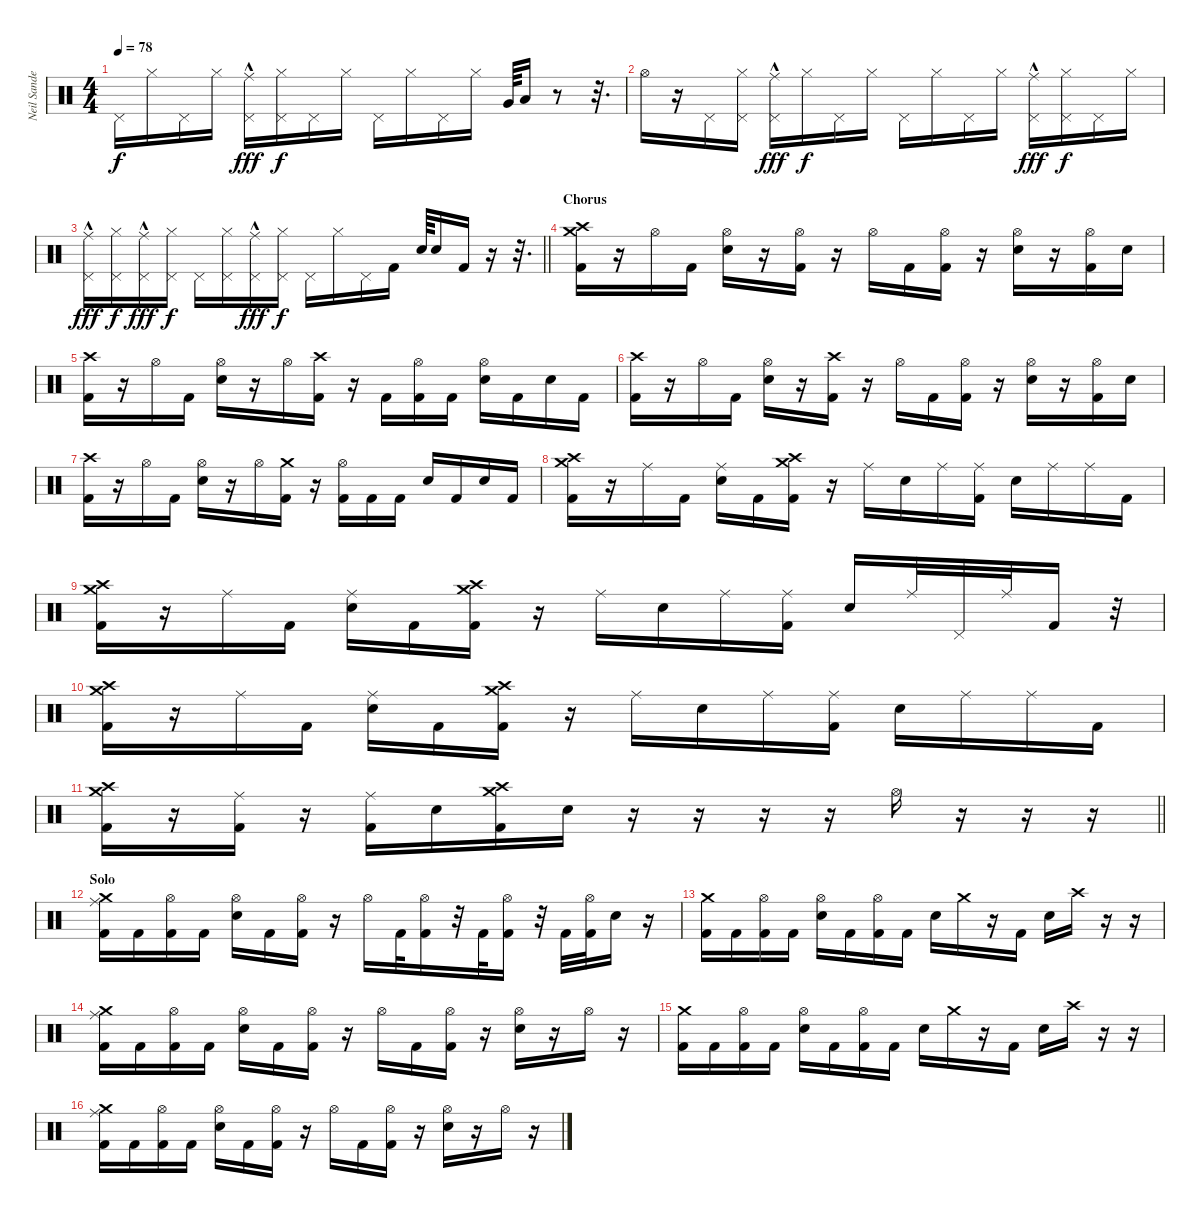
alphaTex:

\track ("Neil Sanderson (Percussion)" "Neil Sande") {instrument percussion}
\staff {score}
\articulation defaults
\ts (4 4)
\tempo 78
\clef neutral
\ks c "Pedal Hi-Hat (hit)".16{dy f} "Hi-Hat (closed)".16 "Pedal Hi-Hat (hit)".16 "Hi-Hat (closed)".16
("Pedal Hi-Hat (hit)" "Ride (middle)"{hac}).16{dy fff} ("Pedal Hi-Hat (hit)" "Hi-Hat (closed)").16{dy f} "Pedal Hi-Hat (hit)".16 "Hi-Hat (closed)".16 "Pedal Hi-Hat (hit)".16 "Hi-Hat (closed)".16 "Pedal Hi-Hat (hit)".16 "Hi-Hat (closed)".16 "Very Low Tom (hit)".64 "Low Floor Tom (hit)".16 r.8 r.32{d} |
"Hi-Hat (open)".16 r.16 "Pedal Hi-Hat (hit)".16 ("Pedal Hi-Hat (hit)" "Hi-Hat (closed)").16 ("Pedal Hi-Hat (hit)" "Ride (middle)"{hac}).16{dy fff} "Hi-Hat (closed)".16{dy f} "Pedal Hi-Hat (hit)".16 "Hi-Hat (closed)".16 "Pedal Hi-Hat (hit)".16 "Hi-Hat (closed)".16 "Pedal Hi-Hat (hit)".16 "Hi-Hat (closed)".16 ("Pedal Hi-Hat (hit)" "Ride (middle)"{hac}).16{dy fff} ("Pedal Hi-Hat (hit)" "Hi-Hat (closed)").16{dy f} "Pedal Hi-Hat (hit)".16 "Hi-Hat (closed)".16 |
\barLineRight lightlight
("Pedal Hi-Hat (hit)" "Ride (middle)"{hac}).16{dy fff} ("Pedal Hi-Hat (hit)" "Hi-Hat (closed)").16{dy f} ("Pedal Hi-Hat (hit)" "Ride (middle)"{hac}).16{dy fff} ("Pedal Hi-Hat (hit)" "Hi-Hat (closed)").16{dy f} "Pedal Hi-Hat (hit)".16 ("Pedal Hi-Hat (hit)" "Hi-Hat (closed)").16 ("Pedal Hi-Hat (hit)" "Ride (middle)"{hac}).16{dy fff} ("Pedal Hi-Hat (hit)" "Hi-Hat (closed)").16{dy f} "Pedal Hi-Hat (hit)".16 "Hi-Hat (closed)".16 "Pedal Hi-Hat (hit)".16 "Kick (hit) 2".16 "Snare (hit) 2".64 "Electric Snare (hit)".16 "Kick (hit) 2".16 r.16 r.32{d} |
\section ("" "Chorus")
("Crash medium (hit)" "Crash high (hit)" "Kick (hit) 2").16 r.16 "Hi-Hat (open)".16 "Kick (hit) 2".16 ("Hi-Hat (open)" "Electric Snare (hit)").16 r.16 ("Hi-Hat (open)" "Kick (hit) 2").16 r.16 "Hi-Hat (open)".16 "Kick (hit) 2".16 ("Hi-Hat (open)" "Kick (hit) 2").16 r.16 ("Hi-Hat (open)" "Electric Snare (hit)").16 r.16 ("Hi-Hat (open)" "Kick (hit) 2").16 "Electric Snare (hit)".16 |
("Crash high (hit)" "Kick (hit) 2").16 r.16 "Hi-Hat (open)".16 "Kick (hit) 2".16 ("Hi-Hat (open)" "Electric Snare (hit)").16 r.16 "Hi-Hat (open)".16 ("Crash high (hit)" "Kick (hit) 2").16 r.16 "Kick (hit) 2".16 ("Hi-Hat (open)" "Kick (hit) 2").16 "Kick (hit) 2".16 ("Hi-Hat (open)" "Electric Snare (hit)").16 "Kick (hit) 2".16 "Electric Snare (hit)".16 "Kick (hit) 2".16 |
("Crash high (hit)" "Kick (hit) 2").16 r.16 "Hi-Hat (open)".16 "Kick (hit) 2".16 ("Hi-Hat (open)" "Electric Snare (hit)").16 r.16 ("Crash high (hit)" "Kick (hit) 2").16 r.16 "Hi-Hat (open)".16 "Kick (hit) 2".16 ("Hi-Hat (open)" "Kick (hit) 2").16 r.16 ("Hi-Hat (open)" "Electric Snare (hit)").16 r.16 ("Hi-Hat (open)" "Kick (hit) 2").16 "Electric Snare (hit)".16 |
("Crash high (hit)" "Kick (hit) 2").16 r.16 "Hi-Hat (open)".16 "Kick (hit) 2".16 ("Hi-Hat (open)" "Electric Snare (hit)").16 r.16 "Hi-Hat (open)".16 ("Crash medium (hit)" "Kick (hit) 2").16 r.16 ("Hi-Hat (open)" "Kick (hit) 2").16 "Kick (hit) 2".16 "Kick (hit) 2".16 "Electric Snare (hit)".16 "Kick (hit) 2".16 "Electric Snare (hit)".16 "Kick (hit) 2".16 |
("Crash medium (hit)" "Crash high (hit)" "Kick (hit) 2").16 r.16 "Ride (middle)".16 "Kick (hit) 2".16 ("Ride (middle)" "Electric Snare (hit)").16 "Kick (hit) 2".16 ("Crash medium (hit)" "Crash high (hit)" "Kick (hit) 2").16 r.16 "Ride (middle)".16 "Electric Snare (hit)".16 "Ride (middle)".16 ("Ride (middle)" "Kick (hit) 2").16 "Electric Snare (hit)".16 "Ride (middle)".16 "Ride (middle)".16 "Kick (hit) 2".16 |
("Crash medium (hit)" "Crash high (hit)" "Kick (hit) 2").16 r.16 "Ride (middle)".16 "Kick (hit) 2".16 ("Ride (middle)" "Electric Snare (hit)").16 "Kick (hit) 2".16 ("Crash medium (hit)" "Crash high (hit)" "Kick (hit) 2").16 r.16 "Ride (middle)".16 "Electric Snare (hit)".16 "Ride (middle)".16 ("Ride (middle)" "Kick (hit) 2").16 "Electric Snare (hit)".16 "Ride (middle)".32 "Pedal Hi-Hat (hit)".32 "Ride (middle)".32 "Kick (hit) 2".16 r.32 |
("Crash medium (hit)" "Crash high (hit)" "Kick (hit) 2").16 r.16 "Ride (middle)".16 "Kick (hit) 2".16 ("Ride (middle)" "Electric Snare (hit)").16 "Kick (hit) 2".16 ("Crash medium (hit)" "Crash high (hit)" "Kick (hit) 2").16 r.16 "Ride (middle)".16 "Electric Snare (hit)".16 "Ride (middle)".16 ("Ride (middle)" "Kick (hit) 2").16 "Electric Snare (hit)".16 "Ride (middle)".16 "Ride (middle)".16 "Kick (hit) 2".16 |
\barLineRight lightlight
("Crash medium (hit)" "Crash high (hit)" "Kick (hit) 2").16 r.16 ("Ride (middle)" "Kick (hit) 2").16 r.16 ("Ride (middle)" "Kick (hit) 2").16 "Electric Snare (hit)".16 ("Crash medium (hit)" "Crash high (hit)" "Kick (hit) 2").16 "Electric Snare (hit)".16 r.16 r.16 r.16 r.16 "Hi-Hat (open)".16 r.16 r.16 r.16 |
\section ("" "Solo")
("Crash medium (hit)" "Ride (middle)" "Kick (hit) 2").16 "Kick (hit) 2".16 ("Hi-Hat (open)" "Kick (hit) 2").16 "Kick (hit) 2".16 ("Hi-Hat (open)" "Electric Snare (hit)").16 "Kick (hit) 2".16 ("Hi-Hat (open)" "Kick (hit) 2").16 r.16 "Hi-Hat (open)".16 "Kick (hit) 2".32 ("Hi-Hat (open)" "Kick (hit) 2").16 r.32 "Kick (hit) 2".32 ("Hi-Hat (open)" "Kick (hit) 2").16 r.32 "Kick (hit) 2".32 ("Hi-Hat (open)" "Kick (hit) 2").32 "Electric Snare (hit)".16 r.16 |
("Crash medium (hit)" "Kick (hit) 2").16 "Kick (hit) 2".16 ("Hi-Hat (open)" "Kick (hit) 2").16 "Kick (hit) 2".16 ("Hi-Hat (open)" "Electric Snare (hit)").16 "Kick (hit) 2".16 ("Hi-Hat (open)" "Kick (hit) 2").16 "Kick (hit) 2".16 "Electric Snare (hit)".16 "Crash medium (hit)".16 r.16 "Kick (hit) 2".16 "Electric Snare (hit)".16 "Crash high (hit)".16 r.16 r.16 |
("Crash medium (hit)" "Ride (middle)" "Kick (hit) 2").16 "Kick (hit) 2".16 ("Hi-Hat (open)" "Kick (hit) 2").16 "Kick (hit) 2".16 ("Hi-Hat (open)" "Electric Snare (hit)").16 "Kick (hit) 2".16 ("Hi-Hat (open)" "Kick (hit) 2").16 r.16 "Hi-Hat (open)".16 "Kick (hit) 2".16 ("Hi-Hat (open)" "Kick (hit) 2").16 r.16 ("Hi-Hat (open)" "Electric Snare (hit)").16 r.16 "Hi-Hat (open)".16 r.16 |
("Crash medium (hit)" "Kick (hit) 2").16 "Kick (hit) 2".16 ("Hi-Hat (open)" "Kick (hit) 2").16 "Kick (hit) 2".16 ("Hi-Hat (open)" "Electric Snare (hit)").16 "Kick (hit) 2".16 ("Hi-Hat (open)" "Kick (hit) 2").16 "Kick (hit) 2".16 "Electric Snare (hit)".16 "Crash medium (hit)".16 r.16 "Kick (hit) 2".16 "Electric Snare (hit)".16 "Crash high (hit)".16 r.16 r.16 |
("Crash medium (hit)" "Ride (middle)" "Kick (hit) 2").16 "Kick (hit) 2".16 ("Hi-Hat (open)" "Kick (hit) 2").16 "Kick (hit) 2".16 ("Hi-Hat (open)" "Electric Snare (hit)").16 "Kick (hit) 2".16 ("Hi-Hat (open)" "Kick (hit) 2").16 r.16 "Hi-Hat (open)".16 "Kick (hit) 2".16 ("Hi-Hat (open)" "Kick (hit) 2").16 r.16 ("Hi-Hat (open)" "Electric Snare (hit)").16 r.16 "Hi-Hat (open)".16 r.16
